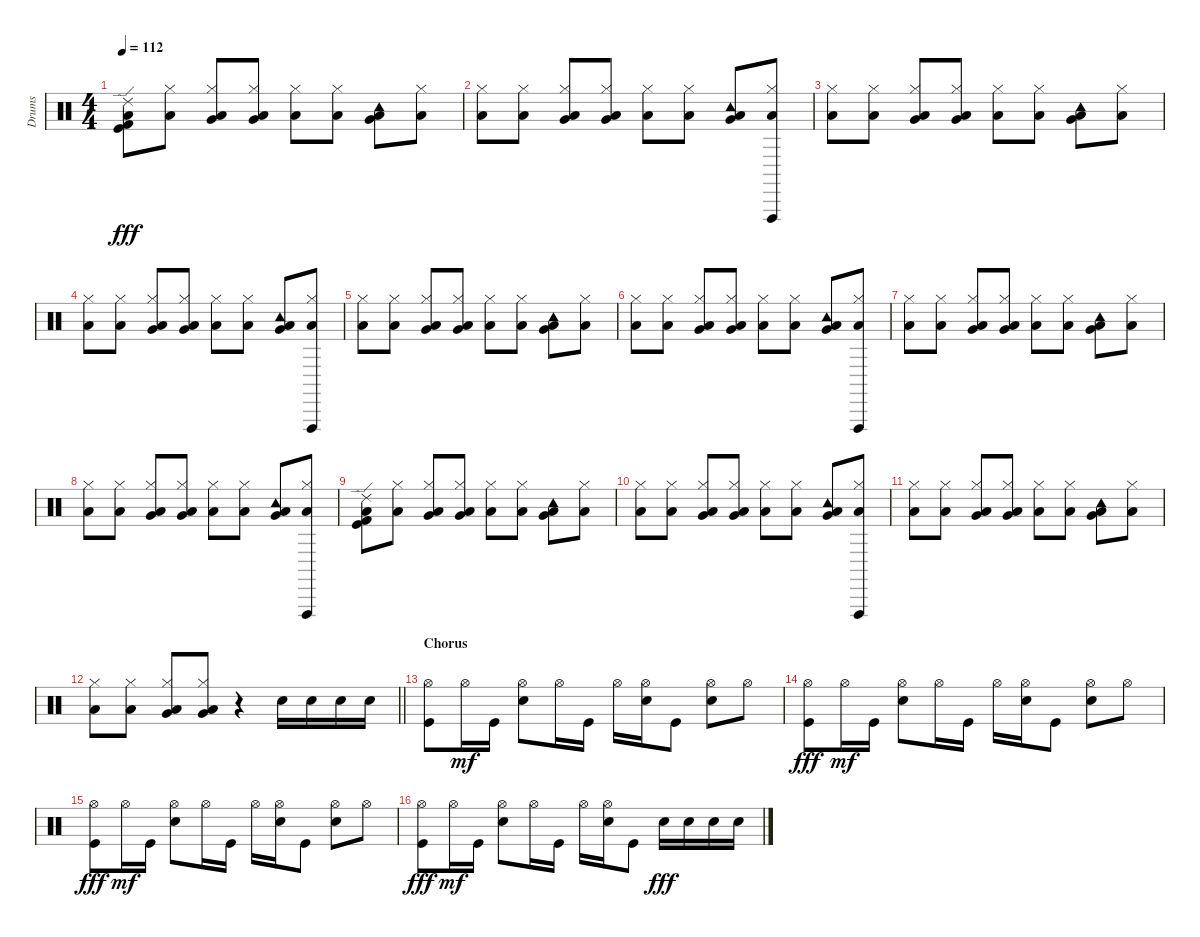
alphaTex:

\track ("Drums" "Drums") {instrument percussion}
\staff {score}
\articulation defaults
\ts (4 4)
\tempo 112
\clef neutral
\ks c
("Ride (edge) 2" "Kick (hit)" "Low Floor Tom (hit)" "Kick (hit) 2").8{dy fff} ("Hi-Hat (closed)" "Low Floor Tom (hit)").8 ("Hi-Hat (closed)" "Very Low Tom (hit)" "Low Floor Tom (hit)").8 ("Hi-Hat (closed)" "Very Low Tom (hit)" "Low Floor Tom (hit)").8 ("Hi-Hat (closed)" "Low Floor Tom (hit)").8 ("Hi-Hat (closed)" "Low Floor Tom (hit)").8 ("Tambourine (hit)" "Very Low Tom (hit)" "Low Floor Tom (hit)").8 ("Hi-Hat (closed)" "Low Floor Tom (hit)").8 |
("Hi-Hat (closed)" "Low Floor Tom (hit)").8 ("Hi-Hat (closed)" "Low Floor Tom (hit)").8 ("Hi-Hat (closed)" "Very Low Tom (hit)" "Low Floor Tom (hit)").8 ("Hi-Hat (closed)" "Very Low Tom (hit)" "Low Floor Tom (hit)").8 ("Hi-Hat (closed)" "Low Floor Tom (hit)").8 ("Hi-Hat (closed)" "Low Floor Tom (hit)").8 ("Tambourine (hit)" "Very Low Tom (hit)" "Low Floor Tom (hit)").8 ("Hi-Hat (closed)" "Vibraslap (hit)" "Low Floor Tom (hit)").8 |
("Hi-Hat (closed)" "Low Floor Tom (hit)").8 ("Hi-Hat (closed)" "Low Floor Tom (hit)").8 ("Hi-Hat (closed)" "Very Low Tom (hit)" "Low Floor Tom (hit)").8 ("Hi-Hat (closed)" "Very Low Tom (hit)" "Low Floor Tom (hit)").8 ("Hi-Hat (closed)" "Low Floor Tom (hit)").8 ("Hi-Hat (closed)" "Low Floor Tom (hit)").8 ("Tambourine (hit)" "Very Low Tom (hit)" "Low Floor Tom (hit)").8 ("Hi-Hat (closed)" "Low Floor Tom (hit)").8 |
("Hi-Hat (closed)" "Low Floor Tom (hit)").8 ("Hi-Hat (closed)" "Low Floor Tom (hit)").8 ("Hi-Hat (closed)" "Very Low Tom (hit)" "Low Floor Tom (hit)").8 ("Hi-Hat (closed)" "Very Low Tom (hit)" "Low Floor Tom (hit)").8 ("Hi-Hat (closed)" "Low Floor Tom (hit)").8 ("Hi-Hat (closed)" "Low Floor Tom (hit)").8 ("Tambourine (hit)" "Very Low Tom (hit)" "Low Floor Tom (hit)").8 ("Hi-Hat (closed)" "Vibraslap (hit)" "Low Floor Tom (hit)").8 |
("Hi-Hat (closed)" "Low Floor Tom (hit)").8 ("Hi-Hat (closed)" "Low Floor Tom (hit)").8 ("Hi-Hat (closed)" "Very Low Tom (hit)" "Low Floor Tom (hit)").8 ("Hi-Hat (closed)" "Very Low Tom (hit)" "Low Floor Tom (hit)").8 ("Hi-Hat (closed)" "Low Floor Tom (hit)").8 ("Hi-Hat (closed)" "Low Floor Tom (hit)").8 ("Tambourine (hit)" "Very Low Tom (hit)" "Low Floor Tom (hit)").8 ("Hi-Hat (closed)" "Low Floor Tom (hit)").8 |
("Hi-Hat (closed)" "Low Floor Tom (hit)").8 ("Hi-Hat (closed)" "Low Floor Tom (hit)").8 ("Hi-Hat (closed)" "Very Low Tom (hit)" "Low Floor Tom (hit)").8 ("Hi-Hat (closed)" "Very Low Tom (hit)" "Low Floor Tom (hit)").8 ("Hi-Hat (closed)" "Low Floor Tom (hit)").8 ("Hi-Hat (closed)" "Low Floor Tom (hit)").8 ("Tambourine (hit)" "Very Low Tom (hit)" "Low Floor Tom (hit)").8 ("Hi-Hat (closed)" "Vibraslap (hit)" "Low Floor Tom (hit)").8 |
("Hi-Hat (closed)" "Low Floor Tom (hit)").8 ("Hi-Hat (closed)" "Low Floor Tom (hit)").8 ("Hi-Hat (closed)" "Very Low Tom (hit)" "Low Floor Tom (hit)").8 ("Hi-Hat (closed)" "Very Low Tom (hit)" "Low Floor Tom (hit)").8 ("Hi-Hat (closed)" "Low Floor Tom (hit)").8 ("Hi-Hat (closed)" "Low Floor Tom (hit)").8 ("Tambourine (hit)" "Very Low Tom (hit)" "Low Floor Tom (hit)").8 ("Hi-Hat (closed)" "Low Floor Tom (hit)").8 |
("Hi-Hat (closed)" "Low Floor Tom (hit)").8 ("Hi-Hat (closed)" "Low Floor Tom (hit)").8 ("Hi-Hat (closed)" "Very Low Tom (hit)" "Low Floor Tom (hit)").8 ("Hi-Hat (closed)" "Very Low Tom (hit)" "Low Floor Tom (hit)").8 ("Hi-Hat (closed)" "Low Floor Tom (hit)").8 ("Hi-Hat (closed)" "Low Floor Tom (hit)").8 ("Tambourine (hit)" "Very Low Tom (hit)" "Low Floor Tom (hit)").8 ("Hi-Hat (closed)" "Vibraslap (hit)" "Low Floor Tom (hit)").8 |
("Ride (edge) 2" "Kick (hit)" "Low Floor Tom (hit)" "Kick (hit) 2").8 ("Hi-Hat (closed)" "Low Floor Tom (hit)").8 ("Hi-Hat (closed)" "Very Low Tom (hit)" "Low Floor Tom (hit)").8 ("Hi-Hat (closed)" "Very Low Tom (hit)" "Low Floor Tom (hit)").8 ("Hi-Hat (closed)" "Low Floor Tom (hit)").8 ("Hi-Hat (closed)" "Low Floor Tom (hit)").8 ("Tambourine (hit)" "Very Low Tom (hit)" "Low Floor Tom (hit)").8 ("Hi-Hat (closed)" "Low Floor Tom (hit)").8 |
("Hi-Hat (closed)" "Low Floor Tom (hit)").8 ("Hi-Hat (closed)" "Low Floor Tom (hit)").8 ("Hi-Hat (closed)" "Very Low Tom (hit)" "Low Floor Tom (hit)").8 ("Hi-Hat (closed)" "Very Low Tom (hit)" "Low Floor Tom (hit)").8 ("Hi-Hat (closed)" "Low Floor Tom (hit)").8 ("Hi-Hat (closed)" "Low Floor Tom (hit)").8 ("Tambourine (hit)" "Very Low Tom (hit)" "Low Floor Tom (hit)").8 ("Hi-Hat (closed)" "Vibraslap (hit)" "Low Floor Tom (hit)").8 |
("Hi-Hat (closed)" "Low Floor Tom (hit)").8 ("Hi-Hat (closed)" "Low Floor Tom (hit)").8 ("Hi-Hat (closed)" "Very Low Tom (hit)" "Low Floor Tom (hit)").8 ("Hi-Hat (closed)" "Very Low Tom (hit)" "Low Floor Tom (hit)").8 ("Hi-Hat (closed)" "Low Floor Tom (hit)").8 ("Hi-Hat (closed)" "Low Floor Tom (hit)").8 ("Tambourine (hit)" "Very Low Tom (hit)" "Low Floor Tom (hit)").8 ("Hi-Hat (closed)" "Low Floor Tom (hit)").8 |
\barLineRight lightlight
("Hi-Hat (closed)" "Low Floor Tom (hit)").8 ("Hi-Hat (closed)" "Low Floor Tom (hit)").8 ("Hi-Hat (closed)" "Very Low Tom (hit)" "Low Floor Tom (hit)").8 ("Hi-Hat (closed)" "Very Low Tom (hit)" "Low Floor Tom (hit)").8 r.4 "Electric Snare (hit)".16 "Electric Snare (hit)".16 "Electric Snare (hit)".16 "Electric Snare (hit)".16 |
\section ("" "Chorus")
("Hi-Hat (open)" "Kick (hit)").8 "Hi-Hat (open)".16{dy mf} "Kick (hit)".16 ("Hi-Hat (open)" "Electric Snare (hit)").8 "Hi-Hat (open)".16 "Kick (hit)".16 "Hi-Hat (open)".16 ("Hi-Hat (open)" "Electric Snare (hit)").16 "Kick (hit)".8 ("Hi-Hat (open)" "Electric Snare (hit)").8 "Hi-Hat (open)".8 |
("Hi-Hat (open)" "Kick (hit)").8{dy fff} "Hi-Hat (open)".16{dy mf} "Kick (hit)".16 ("Hi-Hat (open)" "Electric Snare (hit)").8 "Hi-Hat (open)".16 "Kick (hit)".16 "Hi-Hat (open)".16 ("Hi-Hat (open)" "Electric Snare (hit)").16 "Kick (hit)".8 ("Hi-Hat (open)" "Electric Snare (hit)").8 "Hi-Hat (open)".8 |
("Hi-Hat (open)" "Kick (hit)").8{dy fff} "Hi-Hat (open)".16{dy mf} "Kick (hit)".16 ("Hi-Hat (open)" "Electric Snare (hit)").8 "Hi-Hat (open)".16 "Kick (hit)".16 "Hi-Hat (open)".16 ("Hi-Hat (open)" "Electric Snare (hit)").16 "Kick (hit)".8 ("Hi-Hat (open)" "Electric Snare (hit)").8 "Hi-Hat (open)".8 |
("Hi-Hat (open)" "Kick (hit)").8{dy fff} "Hi-Hat (open)".16{dy mf} "Kick (hit)".16 ("Hi-Hat (open)" "Electric Snare (hit)").8 "Hi-Hat (open)".16 "Kick (hit)".16 "Hi-Hat (open)".16 ("Hi-Hat (open)" "Electric Snare (hit)").16 "Kick (hit)".8 "Electric Snare (hit)".16{dy fff} "Electric Snare (hit)".16 "Electric Snare (hit)".16 "Electric Snare (hit)".16
